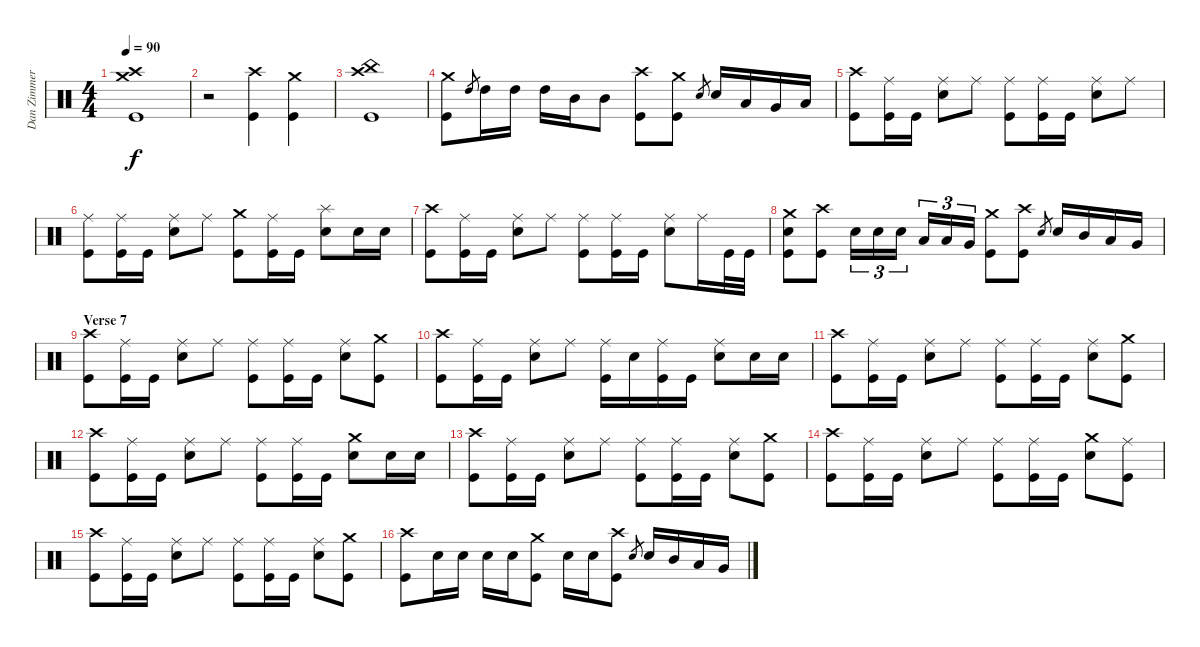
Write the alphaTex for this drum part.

\track ("Dan Zimmerman" "Dan Zimmer") {instrument percussion}
\staff {score}
\articulation defaults
\ts (4 4)
\tempo 90
\clef neutral
\ks c
("Crash high (hit)" "Crash medium (hit)" "Kick (hit)").1{dy f} |
r.2 ("Crash high (hit)" "Kick (hit)").4 ("Crash medium (hit)" "Kick (hit)").4 |
("Crash high (hit)" "China (hit)" "Kick (hit)").1 |
("Crash medium (hit)" "Kick (hit)").8 "High Tom (hit)".8{gr} "High Tom (hit)".16 "High Tom (hit)".16 "High Tom (hit)".16 "Mid Tom (hit)".16 "Mid Tom (hit)".8 ("Crash high (hit)" "Kick (hit)").8 ("Crash medium (hit)" "Kick (hit)").8 "Snare (hit) 2".8{gr} "Snare (hit) 2".16 "Low Tom (hit)".16 "Very Low Tom (hit)".16 "Low Floor Tom (hit)".16 |
("Crash high (hit)" "Kick (hit)").8 ("Ride (middle)" "Kick (hit)").16 "Kick (hit)".16 ("Ride (middle)" "Snare (hit) 2").8 "Ride (middle)".8 ("Ride (middle)" "Kick (hit)").8 ("Ride (middle)" "Kick (hit)").16 "Kick (hit)".16 ("Ride (middle)" "Snare (hit) 2").8 "Ride (middle)".8 |
("Ride (middle)" "Kick (hit)").8 ("Ride (middle)" "Kick (hit)").16 "Kick (hit)".16 ("Ride (middle)" "Snare (hit) 2").8 "Ride (middle)".8 ("Crash medium (hit)" "Kick (hit)").8 ("Ride (middle)" "Kick (hit)").16 "Kick (hit)".16 ("Splash (hit)" "Snare (hit) 2").8 "Snare (hit) 2".16 "Snare (hit) 2".16 |
("Crash high (hit)" "Kick (hit)").8 ("Ride (middle)" "Kick (hit)").16 "Kick (hit)".16 ("Ride (middle)" "Snare (hit) 2").8 "Ride (middle)".8 ("Ride (middle)" "Kick (hit)").8 ("Ride (middle)" "Kick (hit)").16 "Kick (hit)".16 ("Ride (middle)" "Snare (hit) 2").8 "Ride (middle)".16 "Kick (hit)".32 "Kick (hit)".32 |
("Crash medium (hit)" "Snare (hit) 2" "Kick (hit)").8 ("Crash high (hit)" "Kick (hit)").8 "Snare (hit) 2".16{tu (3 2)} "Snare (hit) 2".16{tu (3 2)} "Snare (hit) 2".16{tu (3 2)} "Low Tom (hit)".16{tu (3 2)} "Low Tom (hit)".16{tu (3 2)} "Very Low Tom (hit)".16{tu (3 2)} ("Crash medium (hit)" "Kick (hit)").8 ("Crash high (hit)" "Kick (hit)").8 "Snare (hit) 2".8{gr} "Snare (hit) 2".16 "Mid Tom (hit)".16 "Low Tom (hit)".16 "Very Low Tom (hit)".16 |
\section ("" "Verse 7")
("Crash high (hit)" "Kick (hit)").8 ("Ride (middle)" "Kick (hit)").16 "Kick (hit)".16 ("Ride (middle)" "Snare (hit) 2").8 "Ride (middle)".8 ("Ride (middle)" "Kick (hit)").8 ("Ride (middle)" "Kick (hit)").16 "Kick (hit)".16 ("Ride (middle)" "Snare (hit) 2").8 ("Crash medium (hit)" "Kick (hit)").8 |
("Crash high (hit)" "Kick (hit)").8 ("Ride (middle)" "Kick (hit)").16 "Kick (hit)".16 ("Ride (middle)" "Snare (hit) 2").8 "Ride (middle)".8 ("Ride (middle)" "Kick (hit)").16 "Snare (hit) 2".16 ("Ride (middle)" "Kick (hit)").16 "Kick (hit)".16 ("Ride (middle)" "Snare (hit) 2").8 "Snare (hit) 2".16 "Snare (hit) 2".16 |
("Crash high (hit)" "Kick (hit)").8 ("Ride (middle)" "Kick (hit)").16 "Kick (hit)".16 ("Ride (middle)" "Snare (hit) 2").8 "Ride (middle)".8 ("Ride (middle)" "Kick (hit)").8 ("Ride (middle)" "Kick (hit)").16 "Kick (hit)".16 ("Ride (middle)" "Snare (hit) 2").8 ("Crash medium (hit)" "Kick (hit)").8 |
("Crash high (hit)" "Kick (hit)").8 ("Ride (middle)" "Kick (hit)").16 "Kick (hit)".16 ("Ride (middle)" "Snare (hit) 2").8 "Ride (middle)".8 ("Ride (middle)" "Kick (hit)").8 ("Ride (middle)" "Kick (hit)").16 "Kick (hit)".16 ("Crash medium (hit)" "Snare (hit) 2").8 "Snare (hit) 2".16 "Snare (hit) 2".16 |
("Crash high (hit)" "Kick (hit)").8 ("Ride (middle)" "Kick (hit)").16 "Kick (hit)".16 ("Ride (middle)" "Snare (hit) 2").8 "Ride (middle)".8 ("Ride (middle)" "Kick (hit)").8 ("Ride (middle)" "Kick (hit)").16 "Kick (hit)".16 ("Ride (middle)" "Snare (hit) 2").8 ("Crash medium (hit)" "Kick (hit)").8 |
("Crash high (hit)" "Kick (hit)").8 ("Ride (middle)" "Kick (hit)").16 "Kick (hit)".16 ("Ride (middle)" "Snare (hit) 2").8 "Ride (middle)".8 ("Ride (middle)" "Kick (hit)").8 ("Ride (middle)" "Kick (hit)").16 "Kick (hit)".16 ("Crash medium (hit)" "Snare (hit) 2").8 ("Ride (middle)" "Kick (hit)").8 |
("Crash high (hit)" "Kick (hit)").8 ("Ride (middle)" "Kick (hit)").16 "Kick (hit)".16 ("Ride (middle)" "Snare (hit) 2").8 "Ride (middle)".8 ("Ride (middle)" "Kick (hit)").8 ("Ride (middle)" "Kick (hit)").16 "Kick (hit)".16 ("Ride (middle)" "Snare (hit) 2").8 ("Crash medium (hit)" "Kick (hit)").8 |
("Crash high (hit)" "Kick (hit)").8 "Snare (hit) 2".16 "Snare (hit) 2".16 "Snare (hit) 2".16 "Snare (hit) 2".16 ("Crash medium (hit)" "Kick (hit)").8 "Snare (hit) 2".16 "Snare (hit) 2".16 ("Crash high (hit)" "Kick (hit)").8 "Snare (hit) 2".8{gr} "Snare (hit) 2".16 "Mid Tom (hit)".16 "Low Tom (hit)".16 "Very Low Tom (hit)".16
